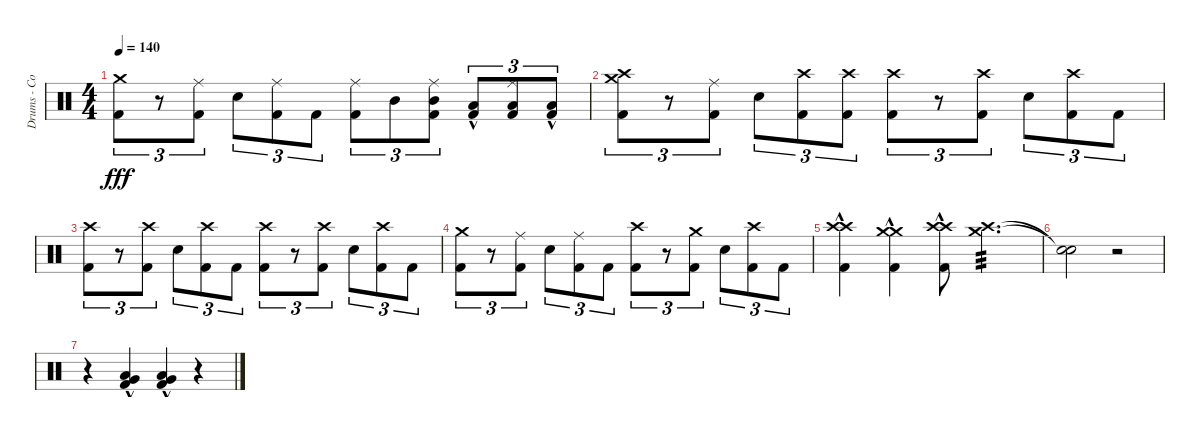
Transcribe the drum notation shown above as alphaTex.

\track ("Drums - Cozy Powell" "Drums - Co") {instrument percussion}
\staff {score}
\articulation defaults
\ts (4 4)
\tempo 140
\clef neutral
\ks c
("Crash medium (hit)" "Kick (hit) 2").8{tu (3 2) dy fff} r.8{tu (3 2)} ("Ride (middle)" "Kick (hit) 2").8{tu (3 2)} "Snare (hit) 2".8{tu (3 2)} ("Ride (middle)" "Kick (hit) 2").8{tu (3 2)} "Kick (hit) 2".8{tu (3 2)} ("Ride (middle)" "Kick (hit) 2").8{tu (3 2)} "Mid Tom (hit)".8{tu (3 2)} ("Ride (middle)" "Mid Tom (hit)" "Kick (hit) 2").8{tu (3 2)} ("Low Tom (hit)"{hac} "Kick (hit) 2"{hac}).8{tu (3 2)} ("Ride (middle)" "Low Tom (hit)" "Kick (hit) 2").8{tu (3 2)} ("Low Floor Tom (hit)"{hac} "Kick (hit) 2"{hac}).8{tu (3 2)} |
("Crash high (hit)" "Crash medium (hit)" "Kick (hit) 2").8{tu (3 2)} r.8{tu (3 2)} ("Ride (middle)" "Kick (hit) 2").8{tu (3 2)} "Snare (hit) 2".8{tu (3 2)} ("Crash high (hit)" "Kick (hit) 2").8{tu (3 2)} ("Crash high (hit)" "Kick (hit) 2").8{tu (3 2)} ("Crash high (hit)" "Kick (hit) 2").8{tu (3 2)} r.8{tu (3 2)} ("Crash high (hit)" "Kick (hit) 2").8{tu (3 2)} "Snare (hit) 2".8{tu (3 2)} ("Crash high (hit)" "Kick (hit) 2").8{tu (3 2)} "Kick (hit) 2".8{tu (3 2)} |
("Crash high (hit)" "Kick (hit) 2").8{tu (3 2)} r.8{tu (3 2)} ("Crash high (hit)" "Kick (hit) 2").8{tu (3 2)} "Snare (hit) 2".8{tu (3 2)} ("Crash high (hit)" "Kick (hit) 2").8{tu (3 2)} "Kick (hit) 2".8{tu (3 2)} ("Crash high (hit)" "Kick (hit) 2").8{tu (3 2)} r.8{tu (3 2)} ("Crash high (hit)" "Kick (hit) 2").8{tu (3 2)} "Snare (hit) 2".8{tu (3 2)} ("Crash high (hit)" "Kick (hit) 2").8{tu (3 2)} "Kick (hit) 2".8{tu (3 2)} |
("Crash medium (hit)" "Kick (hit) 2").8{tu (3 2)} r.8{tu (3 2)} ("Ride (middle)" "Kick (hit) 2").8{tu (3 2)} "Snare (hit) 2".8{tu (3 2)} ("Ride (middle)" "Kick (hit) 2").8{tu (3 2)} "Kick (hit) 2".8{tu (3 2)} ("Crash high (hit)" "Kick (hit) 2").8{tu (3 2)} r.8{tu (3 2)} ("Crash medium (hit)" "Kick (hit) 2").8{tu (3 2)} "Snare (hit) 2".8{tu (3 2)} ("Crash high (hit)" "Kick (hit) 2").8{tu (3 2)} "Kick (hit) 2".8{tu (3 2)} |
("Crash high (hit)"{hac} "Crash high (hit)"{hac} "Kick (hit) 2").4 ("Crash medium (hit)" "Crash medium (hit)"{hac} "Kick (hit) 2").4 ("Crash high (hit)"{hac} "Crash high (hit)"{hac} "Kick (hit) 2").8 ("Crash high (hit)" "Crash medium (hit)").4{d tp 3} |
("Snare (hit)"{t} "Snare (hit)"{t}).2 r.2 |
r.4 ("Very Low Tom (hit)"{hac} "Low Floor Tom (hit)"{hac} "Kick (hit) 2"{hac}).4 ("Very Low Tom (hit)"{hac} "Low Floor Tom (hit)"{hac} "Kick (hit) 2"{hac}).4 r.4
